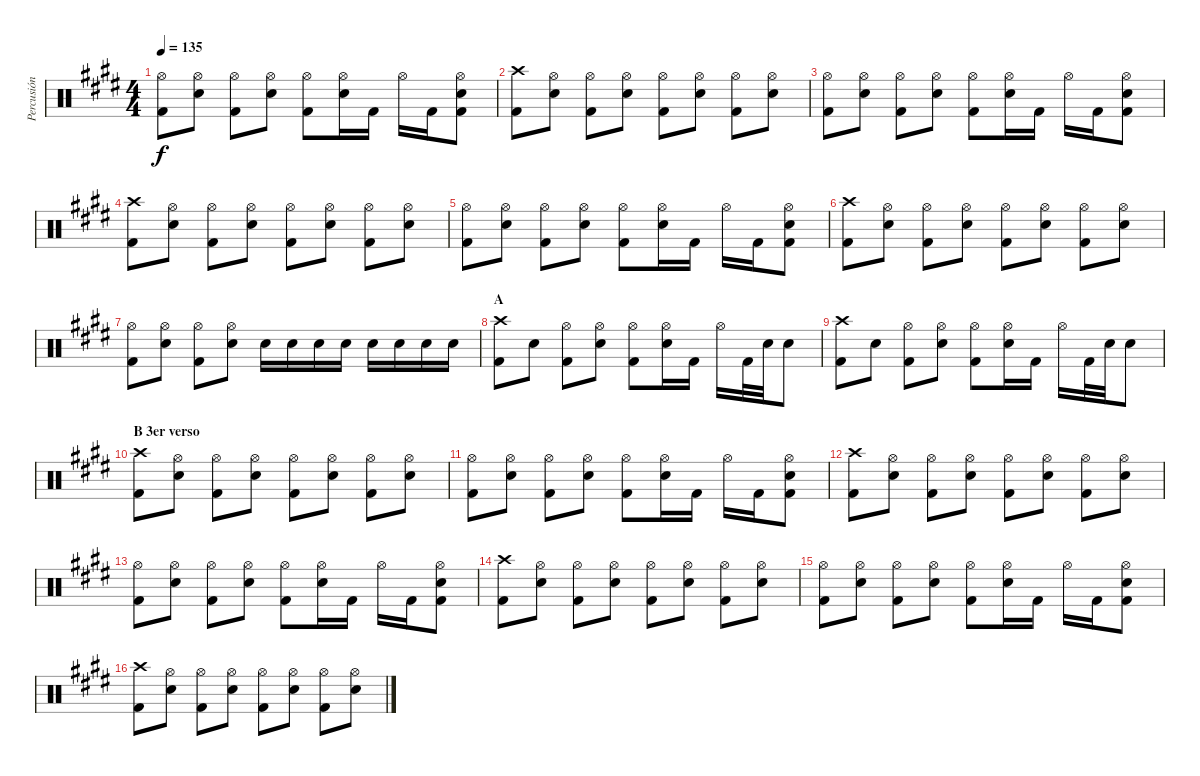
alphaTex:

\track ("Percusión" "Percusión") {instrument percussion}
\staff {score}
\articulation defaults
\ts (4 4)
\tempo 135
\clef neutral
\ks e
("Hi-Hat (open)" "Kick (hit) 2").8{dy f} ("Hi-Hat (open)" "Electric Snare (hit)").8 ("Hi-Hat (open)" "Kick (hit) 2").8 ("Hi-Hat (open)" "Electric Snare (hit)").8 ("Hi-Hat (open)" "Kick (hit) 2").8 ("Hi-Hat (open)" "Electric Snare (hit)").16 "Kick (hit) 2".16 "Hi-Hat (open)".16 "Kick (hit) 2".16 ("Hi-Hat (open)" "Electric Snare (hit)" "Kick (hit) 2").8 |
("Crash high (hit)" "Kick (hit) 2").8 ("Hi-Hat (open)" "Electric Snare (hit)").8 ("Hi-Hat (open)" "Kick (hit) 2").8 ("Hi-Hat (open)" "Electric Snare (hit)").8 ("Hi-Hat (open)" "Kick (hit) 2").8 ("Hi-Hat (open)" "Electric Snare (hit)").8 ("Hi-Hat (open)" "Kick (hit) 2").8 ("Hi-Hat (open)" "Electric Snare (hit)").8 |
("Hi-Hat (open)" "Kick (hit) 2").8 ("Hi-Hat (open)" "Electric Snare (hit)").8 ("Hi-Hat (open)" "Kick (hit) 2").8 ("Hi-Hat (open)" "Electric Snare (hit)").8 ("Hi-Hat (open)" "Kick (hit) 2").8 ("Hi-Hat (open)" "Electric Snare (hit)").16 "Kick (hit) 2".16 "Hi-Hat (open)".16 "Kick (hit) 2".16 ("Hi-Hat (open)" "Electric Snare (hit)" "Kick (hit) 2").8 |
("Crash high (hit)" "Kick (hit) 2").8 ("Hi-Hat (open)" "Electric Snare (hit)").8 ("Hi-Hat (open)" "Kick (hit) 2").8 ("Hi-Hat (open)" "Electric Snare (hit)").8 ("Hi-Hat (open)" "Kick (hit) 2").8 ("Hi-Hat (open)" "Electric Snare (hit)").8 ("Hi-Hat (open)" "Kick (hit) 2").8 ("Hi-Hat (open)" "Electric Snare (hit)").8 |
("Hi-Hat (open)" "Kick (hit) 2").8 ("Hi-Hat (open)" "Electric Snare (hit)").8 ("Hi-Hat (open)" "Kick (hit) 2").8 ("Hi-Hat (open)" "Electric Snare (hit)").8 ("Hi-Hat (open)" "Kick (hit) 2").8 ("Hi-Hat (open)" "Electric Snare (hit)").16 "Kick (hit) 2".16 "Hi-Hat (open)".16 "Kick (hit) 2".16 ("Hi-Hat (open)" "Electric Snare (hit)" "Kick (hit) 2").8 |
("Crash high (hit)" "Kick (hit) 2").8 ("Hi-Hat (open)" "Electric Snare (hit)").8 ("Hi-Hat (open)" "Kick (hit) 2").8 ("Hi-Hat (open)" "Electric Snare (hit)").8 ("Hi-Hat (open)" "Kick (hit) 2").8 ("Hi-Hat (open)" "Electric Snare (hit)").8 ("Hi-Hat (open)" "Kick (hit) 2").8 ("Hi-Hat (open)" "Electric Snare (hit)").8 |
("Hi-Hat (open)" "Kick (hit) 2").8 ("Hi-Hat (open)" "Electric Snare (hit)").8 ("Hi-Hat (open)" "Kick (hit) 2").8 ("Hi-Hat (open)" "Electric Snare (hit)").8 "Electric Snare (hit)".16 "Electric Snare (hit)".16 "Electric Snare (hit)".16 "Electric Snare (hit)".16 "Electric Snare (hit)".16 "Electric Snare (hit)".16 "Electric Snare (hit)".16 "Electric Snare (hit)".16 |
\section ("" "A")
("Crash high (hit)" "Kick (hit) 2").8 "Electric Snare (hit)".8 ("Hi-Hat (open)" "Kick (hit) 2").8 ("Hi-Hat (open)" "Electric Snare (hit)").8 ("Hi-Hat (open)" "Kick (hit) 2").8 ("Hi-Hat (open)" "Electric Snare (hit)").16 "Kick (hit) 2".16 "Hi-Hat (open)".16 "Kick (hit) 2".32 "Electric Snare (hit)".32 "Electric Snare (hit)".8 |
("Crash high (hit)" "Kick (hit) 2").8 "Electric Snare (hit)".8 ("Hi-Hat (open)" "Kick (hit) 2").8 ("Hi-Hat (open)" "Electric Snare (hit)").8 ("Hi-Hat (open)" "Kick (hit) 2").8 ("Hi-Hat (open)" "Electric Snare (hit)").16 "Kick (hit) 2".16 "Hi-Hat (open)".16 "Kick (hit) 2".32 "Electric Snare (hit)".32 "Electric Snare (hit)".8 |
\section ("" "B 3er verso")
("Crash high (hit)" "Kick (hit) 2").8 ("Hi-Hat (open)" "Electric Snare (hit)").8 ("Hi-Hat (open)" "Kick (hit) 2").8 ("Hi-Hat (open)" "Electric Snare (hit)").8 ("Hi-Hat (open)" "Kick (hit) 2").8 ("Hi-Hat (open)" "Electric Snare (hit)").8 ("Hi-Hat (open)" "Kick (hit) 2").8 ("Hi-Hat (open)" "Electric Snare (hit)").8 |
("Hi-Hat (open)" "Kick (hit) 2").8 ("Hi-Hat (open)" "Electric Snare (hit)").8 ("Hi-Hat (open)" "Kick (hit) 2").8 ("Hi-Hat (open)" "Electric Snare (hit)").8 ("Hi-Hat (open)" "Kick (hit) 2").8 ("Hi-Hat (open)" "Electric Snare (hit)").16 "Kick (hit) 2".16 "Hi-Hat (open)".16 "Kick (hit) 2".16 ("Hi-Hat (open)" "Electric Snare (hit)" "Kick (hit) 2").8 |
("Crash high (hit)" "Kick (hit) 2").8 ("Hi-Hat (open)" "Electric Snare (hit)").8 ("Hi-Hat (open)" "Kick (hit) 2").8 ("Hi-Hat (open)" "Electric Snare (hit)").8 ("Hi-Hat (open)" "Kick (hit) 2").8 ("Hi-Hat (open)" "Electric Snare (hit)").8 ("Hi-Hat (open)" "Kick (hit) 2").8 ("Hi-Hat (open)" "Electric Snare (hit)").8 |
("Hi-Hat (open)" "Kick (hit) 2").8 ("Hi-Hat (open)" "Electric Snare (hit)").8 ("Hi-Hat (open)" "Kick (hit) 2").8 ("Hi-Hat (open)" "Electric Snare (hit)").8 ("Hi-Hat (open)" "Kick (hit) 2").8 ("Hi-Hat (open)" "Electric Snare (hit)").16 "Kick (hit) 2".16 "Hi-Hat (open)".16 "Kick (hit) 2".16 ("Hi-Hat (open)" "Electric Snare (hit)" "Kick (hit) 2").8 |
("Crash high (hit)" "Kick (hit) 2").8 ("Hi-Hat (open)" "Electric Snare (hit)").8 ("Hi-Hat (open)" "Kick (hit) 2").8 ("Hi-Hat (open)" "Electric Snare (hit)").8 ("Hi-Hat (open)" "Kick (hit) 2").8 ("Hi-Hat (open)" "Electric Snare (hit)").8 ("Hi-Hat (open)" "Kick (hit) 2").8 ("Hi-Hat (open)" "Electric Snare (hit)").8 |
("Hi-Hat (open)" "Kick (hit) 2").8 ("Hi-Hat (open)" "Electric Snare (hit)").8 ("Hi-Hat (open)" "Kick (hit) 2").8 ("Hi-Hat (open)" "Electric Snare (hit)").8 ("Hi-Hat (open)" "Kick (hit) 2").8 ("Hi-Hat (open)" "Electric Snare (hit)").16 "Kick (hit) 2".16 "Hi-Hat (open)".16 "Kick (hit) 2".16 ("Hi-Hat (open)" "Electric Snare (hit)" "Kick (hit) 2").8 |
("Crash high (hit)" "Kick (hit) 2").8 ("Hi-Hat (open)" "Electric Snare (hit)").8 ("Hi-Hat (open)" "Kick (hit) 2").8 ("Hi-Hat (open)" "Electric Snare (hit)").8 ("Hi-Hat (open)" "Kick (hit) 2").8 ("Hi-Hat (open)" "Electric Snare (hit)").8 ("Hi-Hat (open)" "Kick (hit) 2").8 ("Hi-Hat (open)" "Electric Snare (hit)").8
